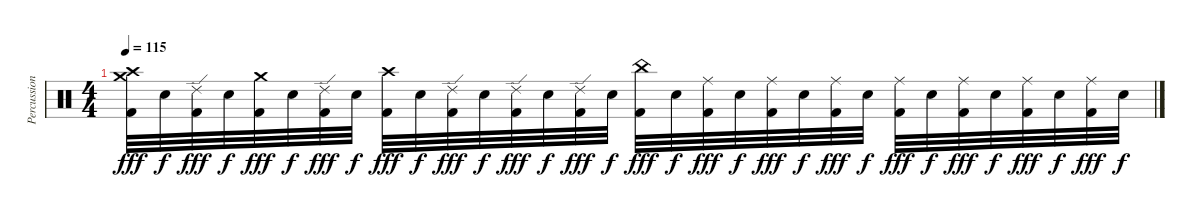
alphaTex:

\track ("Percussion" "Percussion") {instrument percussion}
\staff
\articulation defaults
\ts (4 4)
\tempo 115
\clef neutral
\ks c
("Crash high (hit)" "Crash medium (hit)" "Kick (hit) 2").32{dy fff} "Snare (hit) 2".32{dy f} ("Ride (edge) 2" "Kick (hit) 2").32{dy fff} "Snare (hit) 2".32{dy f} ("Crash medium (hit)" "Kick (hit) 2").32{dy fff} "Snare (hit) 2".32{dy f} ("Ride (edge) 2" "Kick (hit) 2").32{dy fff} "Snare (hit) 2".32{dy f} ("Crash high (hit)" "Kick (hit) 2").32{dy fff} "Snare (hit) 2".32{dy f} ("Ride (edge) 2" "Kick (hit) 2").32{dy fff} "Snare (hit) 2".32{dy f} ("Ride (edge) 2" "Kick (hit) 2").32{dy fff} "Snare (hit) 2".32{dy f} ("Ride (edge) 2" "Kick (hit) 2").32{dy fff} "Snare (hit) 2".32{dy f} ("China (hit)" "Kick (hit) 2").32{dy fff} "Snare (hit) 2".32{dy f} ("Ride (middle)" "Kick (hit) 2").32{dy fff} "Snare (hit) 2".32{dy f} ("Ride (middle)" "Kick (hit) 2").32{dy fff} "Snare (hit) 2".32{dy f} ("Ride (middle)" "Kick (hit) 2").32{dy fff} "Snare (hit) 2".32{dy f} ("Ride (middle)" "Kick (hit) 2").32{dy fff} "Snare (hit) 2".32{dy f} ("Ride (middle)" "Kick (hit) 2").32{dy fff} "Snare (hit) 2".32{dy f} ("Ride (middle)" "Kick (hit) 2").32{dy fff} "Snare (hit) 2".32{dy f} ("Ride (middle)" "Kick (hit) 2").32{dy fff} "Snare (hit) 2".32{dy f}
